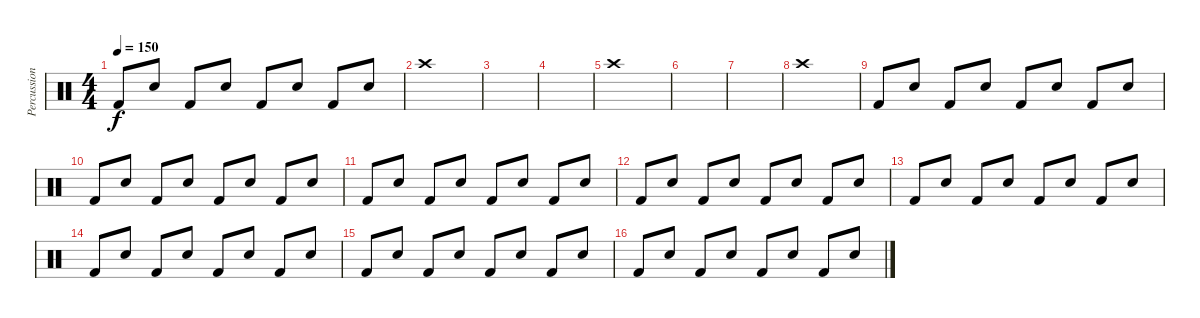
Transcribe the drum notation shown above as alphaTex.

\track ("Percussion" "Percussion") {instrument percussion}
\staff {score}
\articulation defaults
\ts (4 4)
\tempo 150
\clef neutral
\ks c "Kick (hit) 2".8{dy f} "Electric Snare (hit)".8 "Kick (hit) 2".8 "Electric Snare (hit)".8 "Kick (hit) 2".8 "Electric Snare (hit)".8 "Kick (hit) 2".8 "Electric Snare (hit)".8
|
"Crash high (hit)".1 |
|
|
"Crash high (hit)".1 |
|
|
"Crash high (hit)".1 |
"Kick (hit) 2".8 "Electric Snare (hit)".8 "Kick (hit) 2".8 "Electric Snare (hit)".8 "Kick (hit) 2".8 "Electric Snare (hit)".8 "Kick (hit) 2".8 "Electric Snare (hit)".8 |
"Kick (hit) 2".8 "Electric Snare (hit)".8 "Kick (hit) 2".8 "Electric Snare (hit)".8 "Kick (hit) 2".8 "Electric Snare (hit)".8 "Kick (hit) 2".8 "Electric Snare (hit)".8 |
"Kick (hit) 2".8 "Electric Snare (hit)".8 "Kick (hit) 2".8 "Electric Snare (hit)".8 "Kick (hit) 2".8 "Electric Snare (hit)".8 "Kick (hit) 2".8 "Electric Snare (hit)".8 |
"Kick (hit) 2".8 "Electric Snare (hit)".8 "Kick (hit) 2".8 "Electric Snare (hit)".8 "Kick (hit) 2".8 "Electric Snare (hit)".8 "Kick (hit) 2".8 "Electric Snare (hit)".8 |
"Kick (hit) 2".8 "Electric Snare (hit)".8 "Kick (hit) 2".8 "Electric Snare (hit)".8 "Kick (hit) 2".8 "Electric Snare (hit)".8 "Kick (hit) 2".8 "Electric Snare (hit)".8 |
"Kick (hit) 2".8 "Electric Snare (hit)".8 "Kick (hit) 2".8 "Electric Snare (hit)".8 "Kick (hit) 2".8 "Electric Snare (hit)".8 "Kick (hit) 2".8 "Electric Snare (hit)".8 |
"Kick (hit) 2".8 "Electric Snare (hit)".8 "Kick (hit) 2".8 "Electric Snare (hit)".8 "Kick (hit) 2".8 "Electric Snare (hit)".8 "Kick (hit) 2".8 "Electric Snare (hit)".8 |
"Kick (hit) 2".8 "Electric Snare (hit)".8 "Kick (hit) 2".8 "Electric Snare (hit)".8 "Kick (hit) 2".8 "Electric Snare (hit)".8 "Kick (hit) 2".8 "Electric Snare (hit)".8
